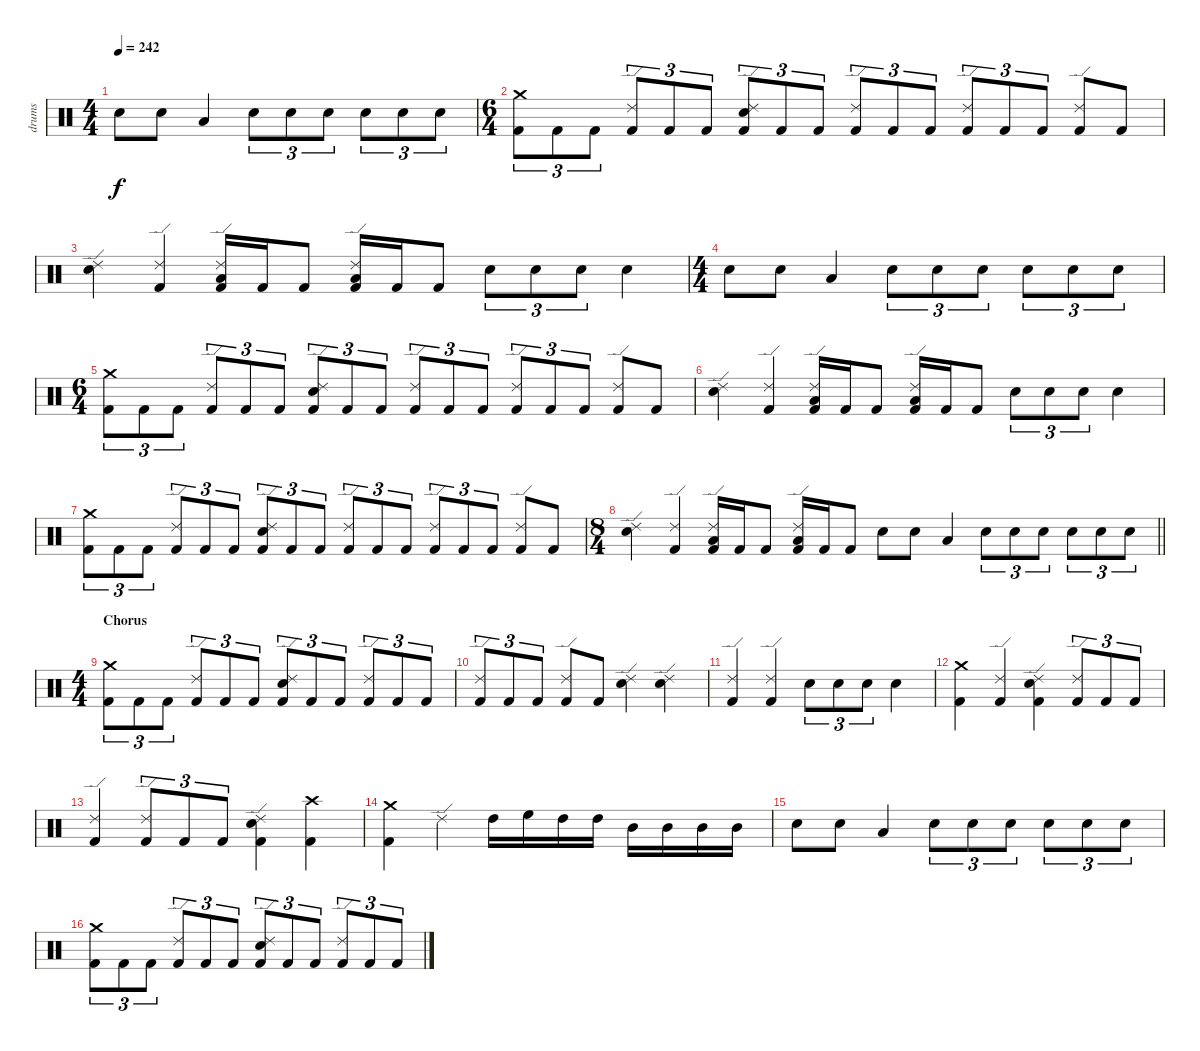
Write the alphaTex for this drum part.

\track ("drums" "drums") {instrument percussion}
\staff {score}
\articulation defaults
\ts (4 4)
\tempo 242
\clef neutral
\ks c "Electric Snare (hit)".8{dy f} "Electric Snare (hit)".8 "Low Tom (hit)".4 "Electric Snare (hit)".8{tu (3 2)} "Electric Snare (hit)".8{tu (3 2)} "Electric Snare (hit)".8{tu (3 2)} "Electric Snare (hit)".8{tu (3 2)} "Electric Snare (hit)".8{tu (3 2)} "Electric Snare (hit)".8{tu (3 2)}
|
\ts (6 4)
("Crash medium (hit)" "Kick (hit) 2").8{tu (3 2)} "Kick (hit) 2".8{tu (3 2)} "Kick (hit) 2".8{tu (3 2)} ("Ride (edge) 2" "Kick (hit) 2").8{tu (3 2)} "Kick (hit) 2".8{tu (3 2)} "Kick (hit) 2".8{tu (3 2)} ("Ride (edge) 2" "Electric Snare (hit)" "Kick (hit) 2").8{tu (3 2)} "Kick (hit) 2".8{tu (3 2)} "Kick (hit) 2".8{tu (3 2)} ("Ride (edge) 2" "Kick (hit) 2").8{tu (3 2)} "Kick (hit) 2".8{tu (3 2)} "Kick (hit) 2".8{tu (3 2)} ("Ride (edge) 2" "Kick (hit) 2").8{tu (3 2)} "Kick (hit) 2".8{tu (3 2)} "Kick (hit) 2".8{tu (3 2)} ("Ride (edge) 2" "Kick (hit) 2").8 "Kick (hit) 2".8 |
("Ride (edge) 2" "Electric Snare (hit)").4 ("Ride (edge) 2" "Kick (hit) 2").4 ("Ride (edge) 2" "Low Tom (hit)" "Kick (hit) 2").16 "Kick (hit) 2".16 "Kick (hit) 2".8 ("Ride (edge) 2" "Low Tom (hit)" "Kick (hit) 2").16 "Kick (hit) 2".16 "Kick (hit) 2".8 "Electric Snare (hit)".8{tu (3 2)} "Electric Snare (hit)".8{tu (3 2)} "Electric Snare (hit)".8{tu (3 2)} "Electric Snare (hit)".4 |
\ts (4 4)
"Electric Snare (hit)".8 "Electric Snare (hit)".8 "Low Tom (hit)".4 "Electric Snare (hit)".8{tu (3 2)} "Electric Snare (hit)".8{tu (3 2)} "Electric Snare (hit)".8{tu (3 2)} "Electric Snare (hit)".8{tu (3 2)} "Electric Snare (hit)".8{tu (3 2)} "Electric Snare (hit)".8{tu (3 2)} |
\ts (6 4)
("Crash medium (hit)" "Kick (hit) 2").8{tu (3 2)} "Kick (hit) 2".8{tu (3 2)} "Kick (hit) 2".8{tu (3 2)} ("Ride (edge) 2" "Kick (hit) 2").8{tu (3 2)} "Kick (hit) 2".8{tu (3 2)} "Kick (hit) 2".8{tu (3 2)} ("Ride (edge) 2" "Electric Snare (hit)" "Kick (hit) 2").8{tu (3 2)} "Kick (hit) 2".8{tu (3 2)} "Kick (hit) 2".8{tu (3 2)} ("Ride (edge) 2" "Kick (hit) 2").8{tu (3 2)} "Kick (hit) 2".8{tu (3 2)} "Kick (hit) 2".8{tu (3 2)} ("Ride (edge) 2" "Kick (hit) 2").8{tu (3 2)} "Kick (hit) 2".8{tu (3 2)} "Kick (hit) 2".8{tu (3 2)} ("Ride (edge) 2" "Kick (hit) 2").8 "Kick (hit) 2".8 |
("Ride (edge) 2" "Electric Snare (hit)").4 ("Ride (edge) 2" "Kick (hit) 2").4 ("Ride (edge) 2" "Low Tom (hit)" "Kick (hit) 2").16 "Kick (hit) 2".16 "Kick (hit) 2".8 ("Ride (edge) 2" "Low Tom (hit)" "Kick (hit) 2").16 "Kick (hit) 2".16 "Kick (hit) 2".8 "Electric Snare (hit)".8{tu (3 2)} "Electric Snare (hit)".8{tu (3 2)} "Electric Snare (hit)".8{tu (3 2)} "Electric Snare (hit)".4 |
("Crash medium (hit)" "Kick (hit) 2").8{tu (3 2)} "Kick (hit) 2".8{tu (3 2)} "Kick (hit) 2".8{tu (3 2)} ("Ride (edge) 2" "Kick (hit) 2").8{tu (3 2)} "Kick (hit) 2".8{tu (3 2)} "Kick (hit) 2".8{tu (3 2)} ("Ride (edge) 2" "Electric Snare (hit)" "Kick (hit) 2").8{tu (3 2)} "Kick (hit) 2".8{tu (3 2)} "Kick (hit) 2".8{tu (3 2)} ("Ride (edge) 2" "Kick (hit) 2").8{tu (3 2)} "Kick (hit) 2".8{tu (3 2)} "Kick (hit) 2".8{tu (3 2)} ("Ride (edge) 2" "Kick (hit) 2").8{tu (3 2)} "Kick (hit) 2".8{tu (3 2)} "Kick (hit) 2".8{tu (3 2)} ("Ride (edge) 2" "Kick (hit) 2").8 "Kick (hit) 2".8 |
\ts (8 4)
\barLineRight lightlight
("Ride (edge) 2" "Electric Snare (hit)").4 ("Ride (edge) 2" "Kick (hit) 2").4 ("Ride (edge) 2" "Low Tom (hit)" "Kick (hit) 2").16 "Kick (hit) 2".16 "Kick (hit) 2".8 ("Ride (edge) 2" "Low Tom (hit)" "Kick (hit) 2").16 "Kick (hit) 2".16 "Kick (hit) 2".8 "Electric Snare (hit)".8 "Electric Snare (hit)".8 "Low Tom (hit)".4 "Electric Snare (hit)".8{tu (3 2)} "Electric Snare (hit)".8{tu (3 2)} "Electric Snare (hit)".8{tu (3 2)} "Electric Snare (hit)".8{tu (3 2)} "Electric Snare (hit)".8{tu (3 2)} "Electric Snare (hit)".8{tu (3 2)} |
\ts (4 4)
\section ("" "Chorus")
("Crash medium (hit)" "Kick (hit) 2").8{tu (3 2)} "Kick (hit) 2".8{tu (3 2)} "Kick (hit) 2".8{tu (3 2)} ("Ride (edge) 2" "Kick (hit) 2").8{tu (3 2)} "Kick (hit) 2".8{tu (3 2)} "Kick (hit) 2".8{tu (3 2)} ("Ride (edge) 2" "Electric Snare (hit)" "Kick (hit) 2").8{tu (3 2)} "Kick (hit) 2".8{tu (3 2)} "Kick (hit) 2".8{tu (3 2)} ("Ride (edge) 2" "Kick (hit) 2").8{tu (3 2)} "Kick (hit) 2".8{tu (3 2)} "Kick (hit) 2".8{tu (3 2)} |
("Ride (edge) 2" "Kick (hit) 2").8{tu (3 2)} "Kick (hit) 2".8{tu (3 2)} "Kick (hit) 2".8{tu (3 2)} ("Ride (edge) 2" "Kick (hit) 2").8 "Kick (hit) 2".8 ("Ride (edge) 2" "Electric Snare (hit)").4 ("Ride (edge) 2" "Electric Snare (hit)").4 |
("Ride (edge) 2" "Kick (hit) 2").4 ("Ride (edge) 2" "Kick (hit) 2").4 "Electric Snare (hit)".8{tu (3 2)} "Electric Snare (hit)".8{tu (3 2)} "Electric Snare (hit)".8{tu (3 2)} "Electric Snare (hit)".4 |
("Crash medium (hit)" "Kick (hit) 2").4 ("Ride (edge) 2" "Kick (hit) 2").4 ("Ride (edge) 2" "Electric Snare (hit)" "Kick (hit) 2").4 ("Ride (edge) 2" "Kick (hit) 2").8{tu (3 2)} "Kick (hit) 2".8{tu (3 2)} "Kick (hit) 2".8{tu (3 2)} |
("Ride (edge) 2" "Kick (hit) 2").4 ("Ride (edge) 2" "Kick (hit) 2").8{tu (3 2)} "Kick (hit) 2".8{tu (3 2)} "Kick (hit) 2".8{tu (3 2)} ("Ride (edge) 2" "Electric Snare (hit)" "Kick (hit) 2").4 ("Crash high (hit)" "Kick (hit) 2").4 |
("Crash medium (hit)" "Kick (hit) 2").4 "Ride (edge) 2".4 "High Tom (hit)".16 "High Floor Tom (hit)".16 "High Tom (hit)".16 "High Tom (hit)".16 "Mid Tom (hit)".16 "Mid Tom (hit)".16 "Mid Tom (hit)".16 "Mid Tom (hit)".16 |
"Electric Snare (hit)".8 "Electric Snare (hit)".8 "Low Tom (hit)".4 "Electric Snare (hit)".8{tu (3 2)} "Electric Snare (hit)".8{tu (3 2)} "Electric Snare (hit)".8{tu (3 2)} "Electric Snare (hit)".8{tu (3 2)} "Electric Snare (hit)".8{tu (3 2)} "Electric Snare (hit)".8{tu (3 2)} |
("Crash medium (hit)" "Kick (hit) 2").8{tu (3 2)} "Kick (hit) 2".8{tu (3 2)} "Kick (hit) 2".8{tu (3 2)} ("Ride (edge) 2" "Kick (hit) 2").8{tu (3 2)} "Kick (hit) 2".8{tu (3 2)} "Kick (hit) 2".8{tu (3 2)} ("Ride (edge) 2" "Electric Snare (hit)" "Kick (hit) 2").8{tu (3 2)} "Kick (hit) 2".8{tu (3 2)} "Kick (hit) 2".8{tu (3 2)} ("Ride (edge) 2" "Kick (hit) 2").8{tu (3 2)} "Kick (hit) 2".8{tu (3 2)} "Kick (hit) 2".8{tu (3 2)}
